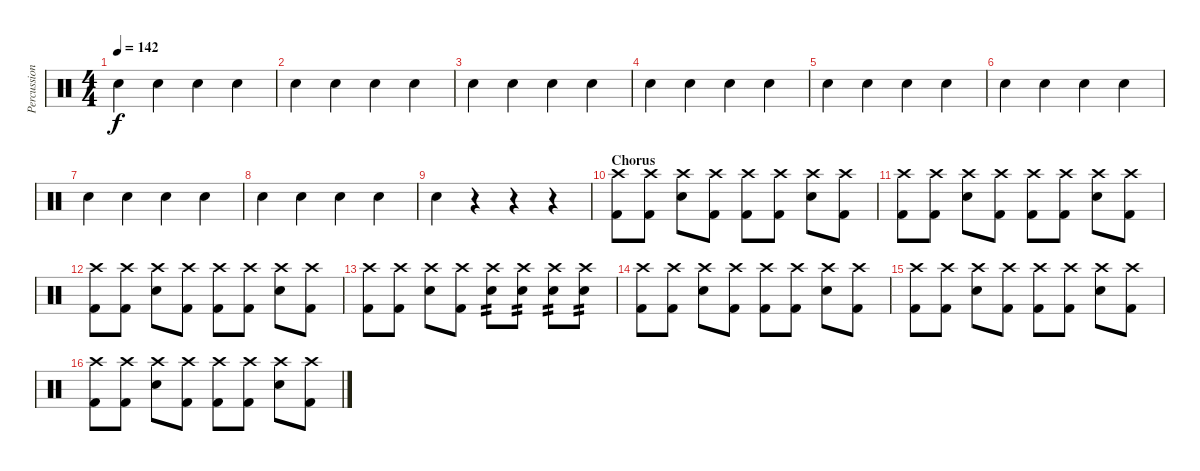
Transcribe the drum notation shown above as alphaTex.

\track ("Percussion" "Percussion") {instrument percussion}
\staff {score}
\articulation defaults
\ts (4 4)
\tempo 142
\clef neutral
\ks c "Snare (hit) 2".4{dy f} "Snare (hit) 2".4 "Snare (hit) 2".4 "Snare (hit) 2".4
|
"Snare (hit) 2".4 "Snare (hit) 2".4 "Snare (hit) 2".4 "Snare (hit) 2".4 |
"Snare (hit) 2".4 "Snare (hit) 2".4 "Snare (hit) 2".4 "Snare (hit) 2".4 |
"Snare (hit) 2".4 "Snare (hit) 2".4 "Snare (hit) 2".4 "Snare (hit) 2".4 |
"Snare (hit) 2".4 "Snare (hit) 2".4 "Snare (hit) 2".4 "Snare (hit) 2".4 |
"Snare (hit) 2".4 "Snare (hit) 2".4 "Snare (hit) 2".4 "Snare (hit) 2".4 |
"Snare (hit) 2".4 "Snare (hit) 2".4 "Snare (hit) 2".4 "Snare (hit) 2".4 |
"Snare (hit) 2".4 "Snare (hit) 2".4 "Snare (hit) 2".4 "Snare (hit) 2".4 |
"Snare (hit) 2".4 r.4 r.4 r.4 |
\section ("" "Chorus")
("Crash high (hit)" "Kick (hit) 2").8 ("Crash high (hit)" "Kick (hit) 2").8 ("Crash high (hit)" "Snare (hit) 2").8 ("Crash high (hit)" "Kick (hit) 2").8 ("Crash high (hit)" "Kick (hit) 2").8 ("Crash high (hit)" "Kick (hit) 2").8 ("Crash high (hit)" "Snare (hit) 2").8 ("Crash high (hit)" "Kick (hit) 2").8 |
("Crash high (hit)" "Kick (hit) 2").8 ("Crash high (hit)" "Kick (hit) 2").8 ("Crash high (hit)" "Snare (hit) 2").8 ("Crash high (hit)" "Kick (hit) 2").8 ("Crash high (hit)" "Kick (hit) 2").8 ("Crash high (hit)" "Kick (hit) 2").8 ("Crash high (hit)" "Snare (hit) 2").8 ("Crash high (hit)" "Kick (hit) 2").8 |
("Crash high (hit)" "Kick (hit) 2").8 ("Crash high (hit)" "Kick (hit) 2").8 ("Crash high (hit)" "Snare (hit) 2").8 ("Crash high (hit)" "Kick (hit) 2").8 ("Crash high (hit)" "Kick (hit) 2").8 ("Crash high (hit)" "Kick (hit) 2").8 ("Crash high (hit)" "Snare (hit) 2").8 ("Crash high (hit)" "Kick (hit) 2").8 |
("Crash high (hit)" "Kick (hit) 2").8 ("Crash high (hit)" "Kick (hit) 2").8 ("Crash high (hit)" "Snare (hit) 2").8 ("Crash high (hit)" "Kick (hit) 2").8 ("Crash high (hit)" "Snare (hit) 2").8{tp 2} ("Crash high (hit)" "Snare (hit) 2").8{tp 2} ("Crash high (hit)" "Snare (hit) 2").8{tp 2} ("Crash high (hit)" "Snare (hit) 2").8{tp 2} |
("Crash high (hit)" "Kick (hit) 2").8 ("Crash high (hit)" "Kick (hit) 2").8 ("Crash high (hit)" "Snare (hit) 2").8 ("Crash high (hit)" "Kick (hit) 2").8 ("Crash high (hit)" "Kick (hit) 2").8 ("Crash high (hit)" "Kick (hit) 2").8 ("Crash high (hit)" "Snare (hit) 2").8 ("Crash high (hit)" "Kick (hit) 2").8 |
("Crash high (hit)" "Kick (hit) 2").8 ("Crash high (hit)" "Kick (hit) 2").8 ("Crash high (hit)" "Snare (hit) 2").8 ("Crash high (hit)" "Kick (hit) 2").8 ("Crash high (hit)" "Kick (hit) 2").8 ("Crash high (hit)" "Kick (hit) 2").8 ("Crash high (hit)" "Snare (hit) 2").8 ("Crash high (hit)" "Kick (hit) 2").8 |
("Crash high (hit)" "Kick (hit) 2").8 ("Crash high (hit)" "Kick (hit) 2").8 ("Crash high (hit)" "Snare (hit) 2").8 ("Crash high (hit)" "Kick (hit) 2").8 ("Crash high (hit)" "Kick (hit) 2").8 ("Crash high (hit)" "Kick (hit) 2").8 ("Crash high (hit)" "Snare (hit) 2").8 ("Crash high (hit)" "Kick (hit) 2").8
